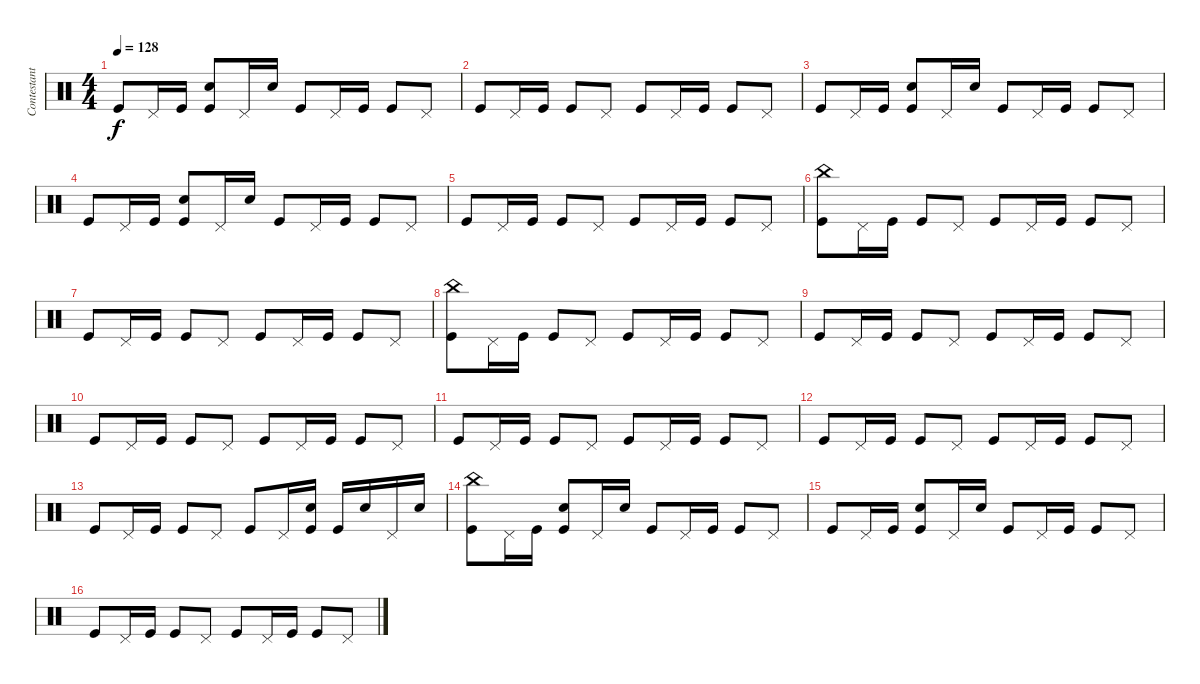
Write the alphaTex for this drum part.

\track ("Contestant #4" "Contestant") {instrument percussion}
\staff {score}
\articulation defaults
\ts (4 4)
\tempo 128
\clef neutral
\ks c "Kick (hit)".8{dy f} "Pedal Hi-Hat (hit)".16 "Kick (hit)".16
("Snare (hit) 2" "Kick (hit)").8 "Pedal Hi-Hat (hit)".16 "Snare (hit) 2".16 "Kick (hit)".8 "Pedal Hi-Hat (hit)".16 "Kick (hit)".16 "Kick (hit)".8 "Pedal Hi-Hat (hit)".8 |
"Kick (hit)".8 "Pedal Hi-Hat (hit)".16 "Kick (hit)".16 "Kick (hit)".8 "Pedal Hi-Hat (hit)".8 "Kick (hit)".8 "Pedal Hi-Hat (hit)".16 "Kick (hit)".16 "Kick (hit)".8 "Pedal Hi-Hat (hit)".8 |
"Kick (hit)".8 "Pedal Hi-Hat (hit)".16 "Kick (hit)".16 ("Snare (hit) 2" "Kick (hit)").8 "Pedal Hi-Hat (hit)".16 "Snare (hit) 2".16 "Kick (hit)".8 "Pedal Hi-Hat (hit)".16 "Kick (hit)".16 "Kick (hit)".8 "Pedal Hi-Hat (hit)".8 |
"Kick (hit)".8 "Pedal Hi-Hat (hit)".16 "Kick (hit)".16 ("Snare (hit) 2" "Kick (hit)").8 "Pedal Hi-Hat (hit)".16 "Snare (hit) 2".16 "Kick (hit)".8 "Pedal Hi-Hat (hit)".16 "Kick (hit)".16 "Kick (hit)".8 "Pedal Hi-Hat (hit)".8 |
"Kick (hit)".8 "Pedal Hi-Hat (hit)".16 "Kick (hit)".16 "Kick (hit)".8 "Pedal Hi-Hat (hit)".8 "Kick (hit)".8 "Pedal Hi-Hat (hit)".16 "Kick (hit)".16 "Kick (hit)".8 "Pedal Hi-Hat (hit)".8 |
("China (hit)" "Kick (hit)").8 "Pedal Hi-Hat (hit)".16 "Kick (hit)".16 "Kick (hit)".8 "Pedal Hi-Hat (hit)".8 "Kick (hit)".8 "Pedal Hi-Hat (hit)".16 "Kick (hit)".16 "Kick (hit)".8 "Pedal Hi-Hat (hit)".8 |
"Kick (hit)".8 "Pedal Hi-Hat (hit)".16 "Kick (hit)".16 "Kick (hit)".8 "Pedal Hi-Hat (hit)".8 "Kick (hit)".8 "Pedal Hi-Hat (hit)".16 "Kick (hit)".16 "Kick (hit)".8 "Pedal Hi-Hat (hit)".8 |
("China (hit)" "Kick (hit)").8 "Pedal Hi-Hat (hit)".16 "Kick (hit)".16 "Kick (hit)".8 "Pedal Hi-Hat (hit)".8 "Kick (hit)".8 "Pedal Hi-Hat (hit)".16 "Kick (hit)".16 "Kick (hit)".8 "Pedal Hi-Hat (hit)".8 |
"Kick (hit)".8 "Pedal Hi-Hat (hit)".16 "Kick (hit)".16 "Kick (hit)".8 "Pedal Hi-Hat (hit)".8 "Kick (hit)".8 "Pedal Hi-Hat (hit)".16 "Kick (hit)".16 "Kick (hit)".8 "Pedal Hi-Hat (hit)".8 |
"Kick (hit)".8 "Pedal Hi-Hat (hit)".16 "Kick (hit)".16 "Kick (hit)".8 "Pedal Hi-Hat (hit)".8 "Kick (hit)".8 "Pedal Hi-Hat (hit)".16 "Kick (hit)".16 "Kick (hit)".8 "Pedal Hi-Hat (hit)".8 |
"Kick (hit)".8 "Pedal Hi-Hat (hit)".16 "Kick (hit)".16 "Kick (hit)".8 "Pedal Hi-Hat (hit)".8 "Kick (hit)".8 "Pedal Hi-Hat (hit)".16 "Kick (hit)".16 "Kick (hit)".8 "Pedal Hi-Hat (hit)".8 |
"Kick (hit)".8 "Pedal Hi-Hat (hit)".16 "Kick (hit)".16 "Kick (hit)".8 "Pedal Hi-Hat (hit)".8 "Kick (hit)".8 "Pedal Hi-Hat (hit)".16 "Kick (hit)".16 "Kick (hit)".8 "Pedal Hi-Hat (hit)".8 |
"Kick (hit)".8 "Pedal Hi-Hat (hit)".16 "Kick (hit)".16 "Kick (hit)".8 "Pedal Hi-Hat (hit)".8 "Kick (hit)".8 "Pedal Hi-Hat (hit)".16 ("Snare (hit) 2" "Kick (hit)").16 "Kick (hit)".16 "Snare (hit) 2".16 "Pedal Hi-Hat (hit)".16 "Snare (hit) 2".16 |
("China (hit)" "Kick (hit)").8{volume 11} "Pedal Hi-Hat (hit)".16 "Kick (hit)".16 ("Snare (hit) 2" "Kick (hit)").8 "Pedal Hi-Hat (hit)".16 "Snare (hit) 2".16 "Kick (hit)".8 "Pedal Hi-Hat (hit)".16 "Kick (hit)".16 "Kick (hit)".8 "Pedal Hi-Hat (hit)".8 |
"Kick (hit)".8{volume 9} "Pedal Hi-Hat (hit)".16 "Kick (hit)".16 ("Snare (hit) 2" "Kick (hit)").8 "Pedal Hi-Hat (hit)".16 "Snare (hit) 2".16 "Kick (hit)".8 "Pedal Hi-Hat (hit)".16 "Kick (hit)".16 "Kick (hit)".8 "Pedal Hi-Hat (hit)".8 |
"Kick (hit)".8{volume 8} "Pedal Hi-Hat (hit)".16 "Kick (hit)".16 "Kick (hit)".8 "Pedal Hi-Hat (hit)".8 "Kick (hit)".8 "Pedal Hi-Hat (hit)".16 "Kick (hit)".16 "Kick (hit)".8 "Pedal Hi-Hat (hit)".8
